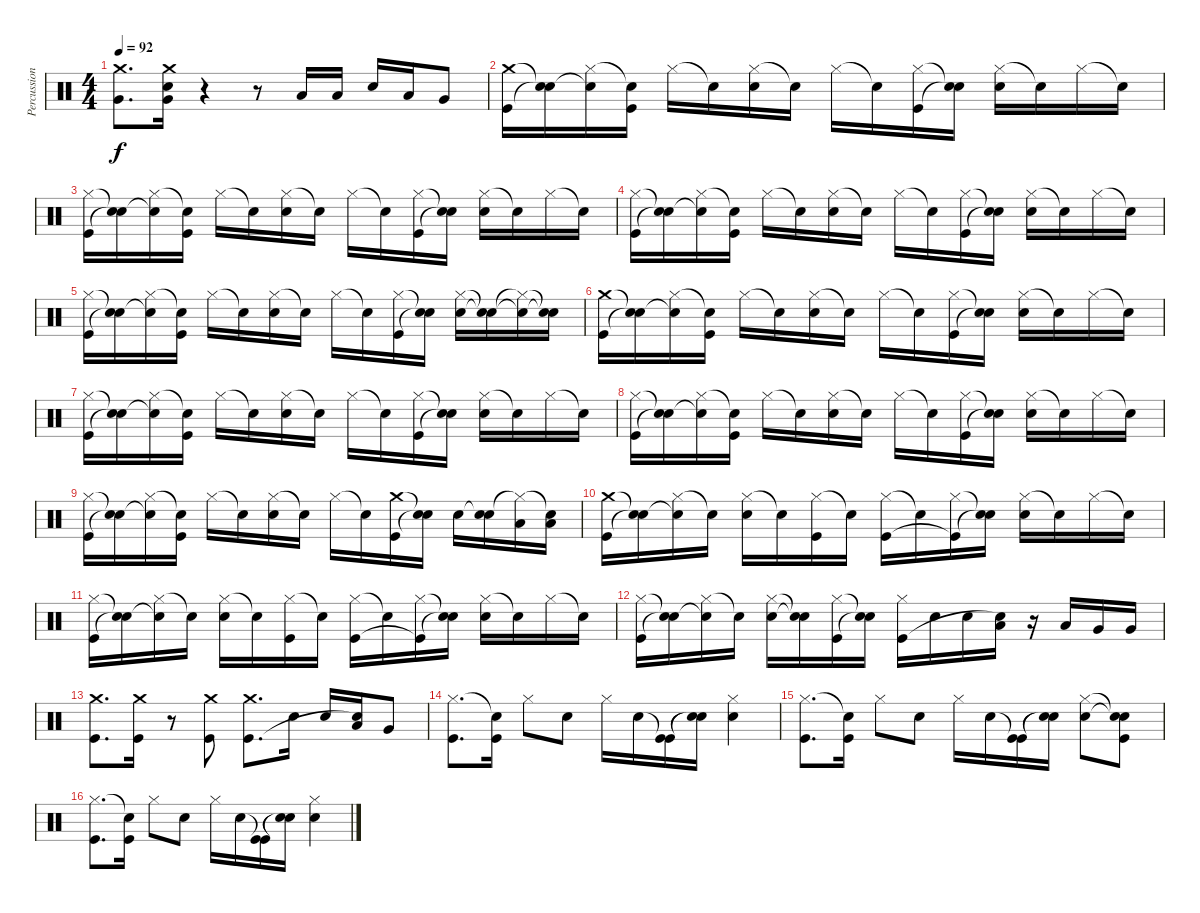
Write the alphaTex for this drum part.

\track ("Percussion" "Percussion") {instrument percussion}
\staff {score}
\articulation defaults
\ts (4 4)
\tempo 92
\clef neutral
\ks c
("Crash medium (hit)" "Very Low Tom (hit)").8{d dy f} ("Crash medium (hit)" "Electric Snare (hit)" "Very Low Tom (hit)").16 r.4 r.8 "Low Tom (hit)".16 "Low Tom (hit)".16 "Electric Snare (hit)".16 "Low Tom (hit)".16 "Very Low Tom (hit)".8 |
("Crash medium (hit)" "Kick (hit)").16 ("Snare (hit)"{t} "Snare (hit)"{t}).16 ("Hi-Hat (closed)" "Snare (hit)"{t}).16 ("Snare (hit)"{t} "Kick (hit)").16 "Hi-Hat (closed)".16 "Snare (hit)"{t}.16 ("Hi-Hat (closed)" "Electric Snare (hit)").16 "Snare (hit)"{t}.16 "Hi-Hat (closed)".16 "Snare (hit)"{t}.16 ("Hi-Hat (closed)" "Kick (hit)").16 ("Snare (hit)"{t} "Snare (hit)"{t}).16 ("Hi-Hat (closed)" "Electric Snare (hit)").16 "Snare (hit)"{t}.16 "Hi-Hat (closed)".16 "Snare (hit)"{t}.16 |
("Hi-Hat (closed)" "Kick (hit)").16 ("Snare (hit)"{t} "Snare (hit)"{t}).16 ("Hi-Hat (closed)" "Snare (hit)"{t}).16 ("Snare (hit)"{t} "Kick (hit)").16 "Hi-Hat (closed)".16 "Snare (hit)"{t}.16 ("Hi-Hat (closed)" "Electric Snare (hit)").16 "Snare (hit)"{t}.16 "Hi-Hat (closed)".16 "Snare (hit)"{t}.16 ("Hi-Hat (closed)" "Kick (hit)").16 ("Snare (hit)"{t} "Snare (hit)"{t}).16 ("Hi-Hat (closed)" "Electric Snare (hit)").16 "Snare (hit)"{t}.16 "Hi-Hat (closed)".16 "Snare (hit)"{t}.16 |
("Hi-Hat (closed)" "Kick (hit)").16 ("Snare (hit)"{t} "Snare (hit)"{t}).16 ("Hi-Hat (closed)" "Snare (hit)"{t}).16 ("Snare (hit)"{t} "Kick (hit)").16 "Hi-Hat (closed)".16 "Snare (hit)"{t}.16 ("Hi-Hat (closed)" "Electric Snare (hit)").16 "Snare (hit)"{t}.16 "Hi-Hat (closed)".16 "Snare (hit)"{t}.16 ("Hi-Hat (closed)" "Kick (hit)").16 ("Snare (hit)"{t} "Snare (hit)"{t}).16 ("Hi-Hat (closed)" "Electric Snare (hit)").16 "Snare (hit)"{t}.16 "Hi-Hat (closed)".16 "Snare (hit)"{t}.16 |
("Hi-Hat (closed)" "Kick (hit)").16 ("Snare (hit)"{t} "Snare (hit)"{t}).16 ("Hi-Hat (closed)" "Snare (hit)"{t}).16 ("Snare (hit)"{t} "Kick (hit)").16 "Hi-Hat (closed)".16 "Snare (hit)"{t}.16 ("Hi-Hat (closed)" "Electric Snare (hit)").16 "Snare (hit)"{t}.16 "Hi-Hat (closed)".16 "Snare (hit)"{t}.16 ("Hi-Hat (closed)" "Kick (hit)").16 ("Snare (hit)"{t} "Snare (hit)"{t}).16 ("Hi-Hat (closed)" "Electric Snare (hit)").16 ("Snare (hit)"{t} "Snare (hit)"{t}).16 ("Hi-Hat (closed)"{t} "Snare (hit)"{t}).16 ("Snare (hit)"{t} "Snare (hit)"{t}).16 |
("Crash medium (hit)" "Kick (hit)").16 ("Snare (hit)"{t} "Snare (hit)"{t}).16 ("Hi-Hat (closed)" "Snare (hit)"{t}).16 ("Snare (hit)"{t} "Kick (hit)").16 "Hi-Hat (closed)".16 "Snare (hit)"{t}.16 ("Hi-Hat (closed)" "Electric Snare (hit)").16 "Snare (hit)"{t}.16 "Hi-Hat (closed)".16 "Snare (hit)"{t}.16 ("Hi-Hat (closed)" "Kick (hit)").16 ("Snare (hit)"{t} "Snare (hit)"{t}).16 ("Hi-Hat (closed)" "Electric Snare (hit)").16 "Snare (hit)"{t}.16 "Hi-Hat (closed)".16 "Snare (hit)"{t}.16 |
("Hi-Hat (closed)" "Kick (hit)").16 ("Snare (hit)"{t} "Snare (hit)"{t}).16 ("Hi-Hat (closed)" "Snare (hit)"{t}).16 ("Snare (hit)"{t} "Kick (hit)").16 "Hi-Hat (closed)".16 "Snare (hit)"{t}.16 ("Hi-Hat (closed)" "Electric Snare (hit)").16 "Snare (hit)"{t}.16 "Hi-Hat (closed)".16 "Snare (hit)"{t}.16 ("Hi-Hat (closed)" "Kick (hit)").16 ("Snare (hit)"{t} "Snare (hit)"{t}).16 ("Hi-Hat (closed)" "Electric Snare (hit)").16 "Snare (hit)"{t}.16 "Hi-Hat (closed)".16 "Snare (hit)"{t}.16 |
("Hi-Hat (closed)" "Kick (hit)").16 ("Snare (hit)"{t} "Snare (hit)"{t}).16 ("Hi-Hat (closed)" "Snare (hit)"{t}).16 ("Snare (hit)"{t} "Kick (hit)").16 "Hi-Hat (closed)".16 "Snare (hit)"{t}.16 ("Hi-Hat (closed)" "Electric Snare (hit)").16 "Snare (hit)"{t}.16 "Hi-Hat (closed)".16 "Snare (hit)"{t}.16 ("Hi-Hat (closed)" "Kick (hit)").16 ("Snare (hit)"{t} "Snare (hit)"{t}).16 ("Hi-Hat (closed)" "Electric Snare (hit)").16 "Snare (hit)"{t}.16 "Hi-Hat (closed)".16 "Snare (hit)"{t}.16 |
("Hi-Hat (closed)" "Kick (hit)").16 ("Snare (hit)"{t} "Snare (hit)"{t}).16 ("Hi-Hat (closed)" "Snare (hit)"{t}).16 ("Snare (hit)"{t} "Kick (hit)").16 "Hi-Hat (closed)".16 "Snare (hit)"{t}.16 ("Hi-Hat (closed)" "Electric Snare (hit)").16 "Snare (hit)"{t}.16 "Hi-Hat (closed)".16 "Snare (hit)"{t}.16 ("Crash medium (hit)" "Kick (hit)").16 ("Snare (hit)"{t} "Snare (hit)"{t}).16 "Electric Snare (hit)".16 ("Snare (hit)"{t} "Electric Snare (hit)").16 ("Hi-Hat (closed)"{t} "Low Tom (hit)").16 ("Snare (hit)"{t} "Low Tom (hit)").16 |
("Crash medium (hit)" "Kick (hit)").16 ("Snare (hit)"{t} "Snare (hit)"{t}).16 ("Hi-Hat (closed)" "Snare (hit)"{t}).16 "Snare (hit)"{t}.16 ("Hi-Hat (closed)" "Electric Snare (hit)").16 "Snare (hit)"{t}.16 ("Hi-Hat (closed)" "Kick (hit)").16 "Snare (hit)"{t}.16 ("Hi-Hat (closed)" "Kick (hit)").16 "Snare (hit)"{t}.16 ("Hi-Hat (closed)" "Kick (hit)"{t}).16 ("Snare (hit)"{t} "Snare (hit)"{t}).16 ("Hi-Hat (closed)" "Electric Snare (hit)").16 "Snare (hit)"{t}.16 "Hi-Hat (closed)".16 "Snare (hit)"{t}.16 |
("Hi-Hat (closed)" "Kick (hit)").16 ("Snare (hit)"{t} "Snare (hit)"{t}).16 ("Hi-Hat (closed)" "Snare (hit)"{t}).16 "Snare (hit)"{t}.16 ("Hi-Hat (closed)" "Electric Snare (hit)").16 "Snare (hit)"{t}.16 ("Hi-Hat (closed)" "Kick (hit)").16 "Snare (hit)"{t}.16 ("Hi-Hat (closed)" "Kick (hit)").16 "Snare (hit)"{t}.16 ("Hi-Hat (closed)" "Kick (hit)"{t}).16 ("Snare (hit)"{t} "Snare (hit)"{t}).16 ("Hi-Hat (closed)" "Electric Snare (hit)").16 "Snare (hit)"{t}.16 "Hi-Hat (closed)".16 "Snare (hit)"{t}.16 |
("Hi-Hat (closed)" "Kick (hit)").16 ("Snare (hit)"{t} "Snare (hit)"{t}).16 ("Hi-Hat (closed)" "Snare (hit)"{t}).16 "Snare (hit)"{t}.16 ("Hi-Hat (closed)" "Electric Snare (hit)").16 ("Snare (hit)"{t} "Snare (hit)"{t}).16 ("Hi-Hat (closed)" "Kick (hit)").16 ("Snare (hit)"{t} "Snare (hit)"{t}).16 ("Hi-Hat (closed)" "Kick (hit)").16 "Electric Snare (hit)".16 "Electric Snare (hit)".16 ("Low Tom (hit)" "Snare (hit)"{t}).16 r.16 "Low Tom (hit)".16 "Very Low Tom (hit)".16 "Very Low Tom (hit)".16 |
("Crash medium (hit)" "Kick (hit)").8{d} ("Crash medium (hit)" "Kick (hit)").16 r.8 ("Crash medium (hit)" "Kick (hit)").8 ("Crash medium (hit)" "Kick (hit)").8{d} "Electric Snare (hit)".16 "Electric Snare (hit)".16 ("Low Tom (hit)" "Snare (hit)"{t}).16 "Very Low Tom (hit)".8 |
("Hi-Hat (closed)" "Kick (hit)").8{d} ("Snare (hit)"{t} "Kick (hit)").16 "Hi-Hat (closed)".8 "Electric Snare (hit)".8 "Hi-Hat (closed)".16 "Electric Snare (hit)".16 ("Kick (hit)"{t} "Kick (hit)").16 ("Snare (hit)"{t} "Snare (hit)"{t}).16 ("Hi-Hat (closed)" "Electric Snare (hit)").4 |
("Hi-Hat (closed)" "Kick (hit)").8{d} ("Snare (hit)"{t} "Kick (hit)").16 "Hi-Hat (closed)".8 "Electric Snare (hit)".8 "Hi-Hat (closed)".16 "Electric Snare (hit)".16 ("Kick (hit)"{t} "Kick (hit)").16 ("Snare (hit)"{t} "Snare (hit)"{t}).16 ("Hi-Hat (closed)" "Electric Snare (hit)").8 ("Snare (hit)"{t} "Snare (hit)"{t} "Kick (hit)").8 |
("Hi-Hat (closed)" "Kick (hit)").8{d} ("Snare (hit)"{t} "Kick (hit)").16 "Hi-Hat (closed)".8 "Electric Snare (hit)".8 "Hi-Hat (closed)".16 "Electric Snare (hit)".16 ("Kick (hit)"{t} "Kick (hit)").16 ("Snare (hit)"{t} "Snare (hit)"{t}).16 ("Hi-Hat (closed)" "Electric Snare (hit)").4
